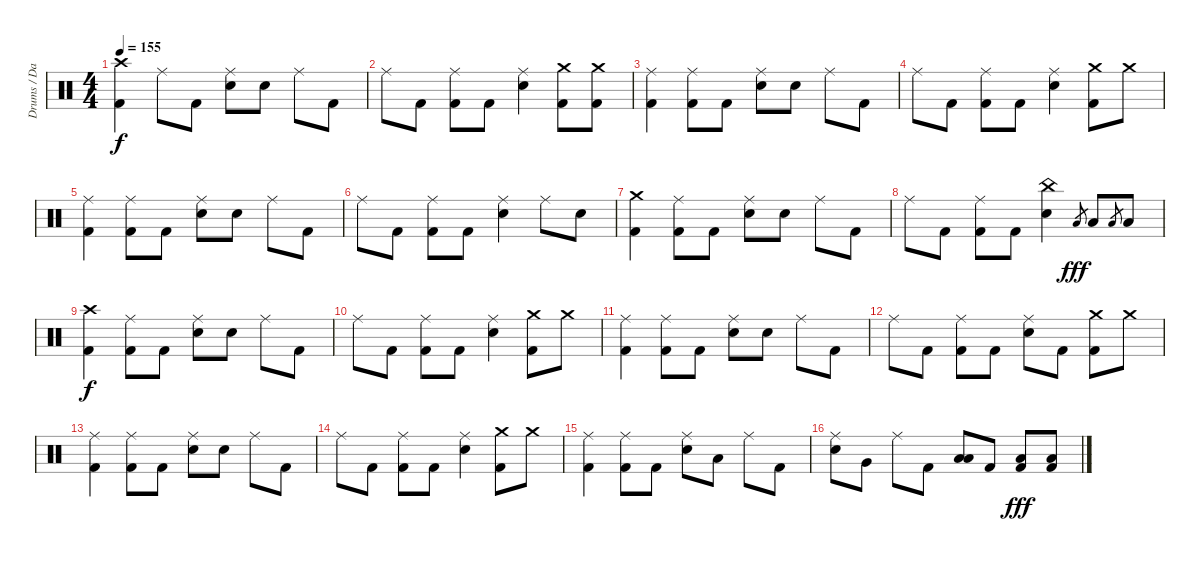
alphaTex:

\track ("Drums / David" "Drums / Da") {instrument percussion}
\staff {score}
\articulation defaults
\ts (4 4)
\tempo 155
\clef neutral
\ks c
("Crash high (hit)" "Kick (hit) 2").4{dy f} "Ride (middle)".8 "Kick (hit) 2".8 ("Ride (middle)" "Electric Snare (hit)").8 "Electric Snare (hit)".8 "Ride (middle)".8 "Kick (hit) 2".8 |
"Ride (middle)".8 "Kick (hit) 2".8 ("Ride (middle)" "Kick (hit) 2").8 "Kick (hit) 2".8 ("Ride (middle)" "Electric Snare (hit)").4 ("Crash medium (hit)" "Kick (hit) 2").8 ("Crash medium (hit)" "Kick (hit) 2").8 |
("Ride (middle)" "Kick (hit) 2").4 ("Ride (middle)" "Kick (hit) 2").8 "Kick (hit) 2".8 ("Ride (middle)" "Electric Snare (hit)").8 "Electric Snare (hit)".8 "Ride (middle)".8 "Kick (hit) 2".8 |
"Ride (middle)".8 "Kick (hit) 2".8 ("Ride (middle)" "Kick (hit) 2").8 "Kick (hit) 2".8 ("Ride (middle)" "Electric Snare (hit)").4 ("Crash medium (hit)" "Kick (hit) 2").8 "Crash medium (hit)".8 |
("Ride (middle)" "Kick (hit) 2").4 ("Ride (middle)" "Kick (hit) 2").8 "Kick (hit) 2".8 ("Ride (middle)" "Electric Snare (hit)").8 "Electric Snare (hit)".8 "Ride (middle)".8 "Kick (hit) 2".8 |
"Ride (middle)".8 "Kick (hit) 2".8 ("Ride (middle)" "Kick (hit) 2").8 "Kick (hit) 2".8 ("Ride (middle)" "Electric Snare (hit)").4 "Ride (middle)".8 "Electric Snare (hit)".8 |
("Crash medium (hit)" "Kick (hit) 2").4 ("Ride (middle)" "Kick (hit) 2").8 "Kick (hit) 2".8 ("Ride (middle)" "Electric Snare (hit)").8 "Electric Snare (hit)".8 "Ride (middle)".8 "Kick (hit) 2".8 |
"Ride (middle)".8 "Kick (hit) 2".8 ("Ride (middle)" "Kick (hit) 2").8 "Kick (hit) 2".8 ("China (hit)" "Electric Snare (hit)").4 "Low Floor Tom (hit)".8{gr dy fff} "Low Floor Tom (hit)".8 "Low Floor Tom (hit)".8{gr} "Low Floor Tom (hit)".8 |
("Crash high (hit)" "Kick (hit) 2").4{dy f} ("Ride (middle)" "Kick (hit) 2").8 "Kick (hit) 2".8 ("Ride (middle)" "Electric Snare (hit)").8 "Electric Snare (hit)".8 "Ride (middle)".8 "Kick (hit) 2".8 |
"Ride (middle)".8 "Kick (hit) 2".8 ("Ride (middle)" "Kick (hit) 2").8 "Kick (hit) 2".8 ("Ride (middle)" "Electric Snare (hit)").4 ("Crash medium (hit)" "Kick (hit) 2").8 "Crash medium (hit)".8 |
("Ride (middle)" "Kick (hit) 2").4 ("Ride (middle)" "Kick (hit) 2").8 "Kick (hit) 2".8 ("Ride (middle)" "Electric Snare (hit)").8 "Electric Snare (hit)".8 "Ride (middle)".8 "Kick (hit) 2".8 |
"Ride (middle)".8 "Kick (hit) 2".8 ("Ride (middle)" "Kick (hit) 2").8 "Kick (hit) 2".8 ("Ride (middle)" "Electric Snare (hit)").8 "Kick (hit) 2".8 ("Crash medium (hit)" "Kick (hit) 2").8 "Crash medium (hit)".8 |
("Ride (middle)" "Kick (hit) 2").4 ("Ride (middle)" "Kick (hit) 2").8 "Kick (hit) 2".8 ("Ride (middle)" "Electric Snare (hit)").8 "Electric Snare (hit)".8 "Ride (middle)".8 "Kick (hit) 2".8 |
"Ride (middle)".8 "Kick (hit) 2".8 ("Ride (middle)" "Kick (hit) 2").8 "Kick (hit) 2".8 ("Ride (middle)" "Electric Snare (hit)").4 ("Crash medium (hit)" "Kick (hit) 2").8 "Crash medium (hit)".8 |
("Ride (middle)" "Kick (hit) 2").4 ("Ride (middle)" "Kick (hit) 2").8 "Kick (hit) 2".8 ("Ride (middle)" "Electric Snare (hit)").8 "Low Tom (hit)".8 "Ride (middle)".8 "Kick (hit) 2".8 |
("Ride (middle)" "Electric Snare (hit)").8 "Very Low Tom (hit)".8 "Ride (middle)".8 "Kick (hit) 2".8 ("Low Tom (hit)" "Low Floor Tom (hit)").8 "Kick (hit) 2".8 ("Low Floor Tom (hit)" "Kick (hit) 2").8{dy fff} ("Low Floor Tom (hit)" "Kick (hit) 2").8
